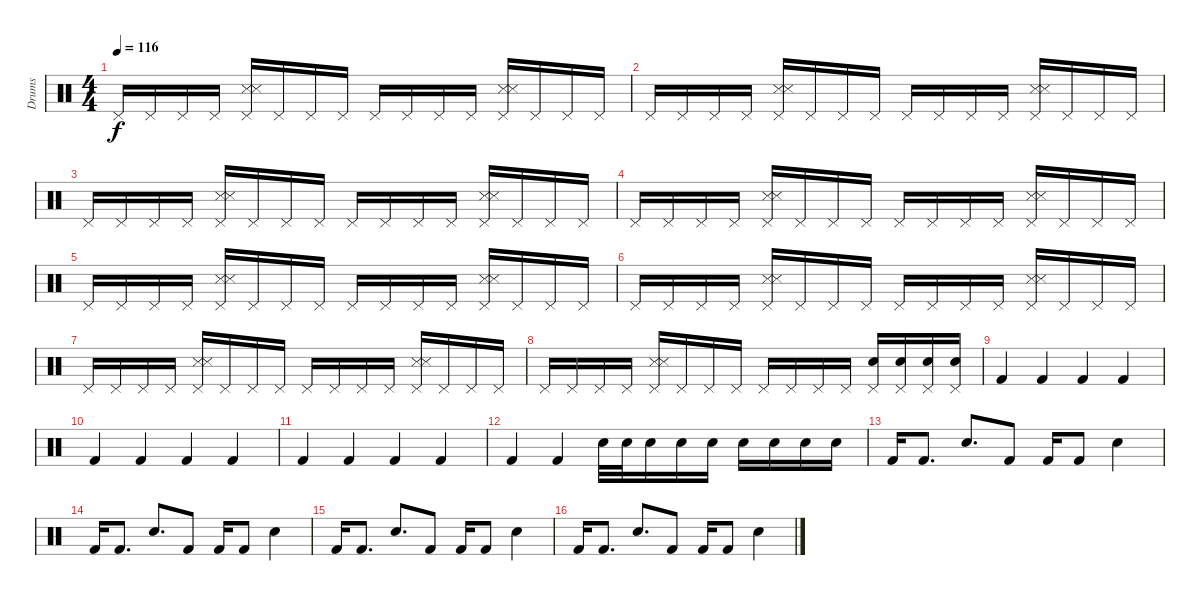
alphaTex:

\track ("Drums" "Drums") {instrument percussion}
\staff {score}
\articulation defaults
\ts (4 4)
\tempo 116
\clef neutral
\ks c "Pedal Hi-Hat (hit)".16{dy f} "Pedal Hi-Hat (hit)".16 "Pedal Hi-Hat (hit)".16 "Pedal Hi-Hat (hit)".16
("Metronome (hit)" "Snare (side stick) 3" "Pedal Hi-Hat (hit)").16 "Pedal Hi-Hat (hit)".16 "Pedal Hi-Hat (hit)".16 "Pedal Hi-Hat (hit)".16 "Pedal Hi-Hat (hit)".16 "Pedal Hi-Hat (hit)".16 "Pedal Hi-Hat (hit)".16 "Pedal Hi-Hat (hit)".16 ("Snare (side stick) 3" "Pedal Hi-Hat (hit)" "Metronome (hit)").16 "Pedal Hi-Hat (hit)".16 "Pedal Hi-Hat (hit)".16 "Pedal Hi-Hat (hit)".16 |
"Pedal Hi-Hat (hit)".16 "Pedal Hi-Hat (hit)".16 "Pedal Hi-Hat (hit)".16 "Pedal Hi-Hat (hit)".16 ("Metronome (hit)" "Snare (side stick) 3" "Pedal Hi-Hat (hit)").16 "Pedal Hi-Hat (hit)".16 "Pedal Hi-Hat (hit)".16 "Pedal Hi-Hat (hit)".16 "Pedal Hi-Hat (hit)".16 "Pedal Hi-Hat (hit)".16 "Pedal Hi-Hat (hit)".16 "Pedal Hi-Hat (hit)".16 ("Pedal Hi-Hat (hit)" "Snare (side stick) 3" "Metronome (hit)").16 "Pedal Hi-Hat (hit)".16 "Pedal Hi-Hat (hit)".16 "Pedal Hi-Hat (hit)".16 |
"Pedal Hi-Hat (hit)".16 "Pedal Hi-Hat (hit)".16 "Pedal Hi-Hat (hit)".16 "Pedal Hi-Hat (hit)".16 ("Snare (side stick) 3" "Metronome (hit)" "Pedal Hi-Hat (hit)").16 "Pedal Hi-Hat (hit)".16 "Pedal Hi-Hat (hit)".16 "Pedal Hi-Hat (hit)".16 "Pedal Hi-Hat (hit)".16 "Pedal Hi-Hat (hit)".16 "Pedal Hi-Hat (hit)".16 "Pedal Hi-Hat (hit)".16 ("Pedal Hi-Hat (hit)" "Metronome (hit)" "Snare (side stick) 3").16 "Pedal Hi-Hat (hit)".16 "Pedal Hi-Hat (hit)".16 "Pedal Hi-Hat (hit)".16 |
"Pedal Hi-Hat (hit)".16 "Pedal Hi-Hat (hit)".16 "Pedal Hi-Hat (hit)".16 "Pedal Hi-Hat (hit)".16 ("Snare (side stick) 3" "Pedal Hi-Hat (hit)" "Metronome (hit)").16 "Pedal Hi-Hat (hit)".16 "Pedal Hi-Hat (hit)".16 "Pedal Hi-Hat (hit)".16 "Pedal Hi-Hat (hit)".16 "Pedal Hi-Hat (hit)".16 "Pedal Hi-Hat (hit)".16 "Pedal Hi-Hat (hit)".16 ("Metronome (hit)" "Pedal Hi-Hat (hit)" "Snare (side stick) 3").16 "Pedal Hi-Hat (hit)".16 "Pedal Hi-Hat (hit)".16 "Pedal Hi-Hat (hit)".16 |
"Pedal Hi-Hat (hit)".16 "Pedal Hi-Hat (hit)".16 "Pedal Hi-Hat (hit)".16 "Pedal Hi-Hat (hit)".16 ("Snare (side stick) 3" "Pedal Hi-Hat (hit)" "Metronome (hit)").16 "Pedal Hi-Hat (hit)".16 "Pedal Hi-Hat (hit)".16 "Pedal Hi-Hat (hit)".16 "Pedal Hi-Hat (hit)".16 "Pedal Hi-Hat (hit)".16 "Pedal Hi-Hat (hit)".16 "Pedal Hi-Hat (hit)".16 ("Metronome (hit)" "Pedal Hi-Hat (hit)" "Snare (side stick) 3").16 "Pedal Hi-Hat (hit)".16 "Pedal Hi-Hat (hit)".16 "Pedal Hi-Hat (hit)".16 |
"Pedal Hi-Hat (hit)".16 "Pedal Hi-Hat (hit)".16 "Pedal Hi-Hat (hit)".16 "Pedal Hi-Hat (hit)".16 ("Metronome (hit)" "Pedal Hi-Hat (hit)" "Snare (side stick) 3").16 "Pedal Hi-Hat (hit)".16 "Pedal Hi-Hat (hit)".16 "Pedal Hi-Hat (hit)".16 "Pedal Hi-Hat (hit)".16 "Pedal Hi-Hat (hit)".16 "Pedal Hi-Hat (hit)".16 "Pedal Hi-Hat (hit)".16 ("Metronome (hit)" "Snare (side stick) 3" "Pedal Hi-Hat (hit)").16 "Pedal Hi-Hat (hit)".16 "Pedal Hi-Hat (hit)".16 "Pedal Hi-Hat (hit)".16 |
"Pedal Hi-Hat (hit)".16 "Pedal Hi-Hat (hit)".16 "Pedal Hi-Hat (hit)".16 "Pedal Hi-Hat (hit)".16 ("Metronome (hit)" "Pedal Hi-Hat (hit)" "Snare (side stick) 3").16 "Pedal Hi-Hat (hit)".16 "Pedal Hi-Hat (hit)".16 "Pedal Hi-Hat (hit)".16 "Pedal Hi-Hat (hit)".16 "Pedal Hi-Hat (hit)".16 "Pedal Hi-Hat (hit)".16 "Pedal Hi-Hat (hit)".16 ("Metronome (hit)" "Snare (side stick) 3" "Pedal Hi-Hat (hit)").16 "Pedal Hi-Hat (hit)".16 "Pedal Hi-Hat (hit)".16 "Pedal Hi-Hat (hit)".16 |
"Pedal Hi-Hat (hit)".16 "Pedal Hi-Hat (hit)".16 "Pedal Hi-Hat (hit)".16 "Pedal Hi-Hat (hit)".16 ("Pedal Hi-Hat (hit)" "Snare (side stick) 3" "Metronome (hit)").16 "Pedal Hi-Hat (hit)".16 "Pedal Hi-Hat (hit)".16 "Pedal Hi-Hat (hit)".16 "Pedal Hi-Hat (hit)".16 "Pedal Hi-Hat (hit)".16 "Pedal Hi-Hat (hit)".16 "Pedal Hi-Hat (hit)".16 ("Snare (hit) 2" "Pedal Hi-Hat (hit)").16 ("Snare (hit) 2" "Pedal Hi-Hat (hit)").16 ("Pedal Hi-Hat (hit)" "Snare (hit) 2").16 ("Snare (hit) 2" "Pedal Hi-Hat (hit)").16 |
"Kick (hit) 2".4 "Kick (hit) 2".4 "Kick (hit) 2".4 "Kick (hit) 2".4 |
"Kick (hit) 2".4 "Kick (hit) 2".4 "Kick (hit) 2".4 "Kick (hit) 2".4 |
"Kick (hit) 2".4 "Kick (hit) 2".4 "Kick (hit) 2".4 "Kick (hit) 2".4 |
"Kick (hit) 2".4 "Kick (hit) 2".4 "Snare (hit) 2".32 "Snare (hit) 2".32 "Snare (hit) 2".16 "Snare (hit) 2".16 "Snare (hit) 2".16 "Snare (hit) 2".16 "Snare (hit) 2".16 "Snare (hit) 2".16 "Snare (hit) 2".16 |
"Kick (hit) 2".16 "Kick (hit) 2".8{d} "Snare (hit) 2".8{d} "Kick (hit) 2".8 "Kick (hit) 2".16 "Kick (hit) 2".8 "Snare (hit) 2".4 |
"Kick (hit) 2".16 "Kick (hit) 2".8{d} "Snare (hit) 2".8{d} "Kick (hit) 2".8 "Kick (hit) 2".16 "Kick (hit) 2".8 "Snare (hit) 2".4 |
"Kick (hit) 2".16 "Kick (hit) 2".8{d} "Snare (hit) 2".8{d} "Kick (hit) 2".8 "Kick (hit) 2".16 "Kick (hit) 2".8 "Snare (hit) 2".4 |
"Kick (hit) 2".16 "Kick (hit) 2".8{d} "Snare (hit) 2".8{d} "Kick (hit) 2".8 "Kick (hit) 2".16 "Kick (hit) 2".8 "Snare (hit) 2".4
